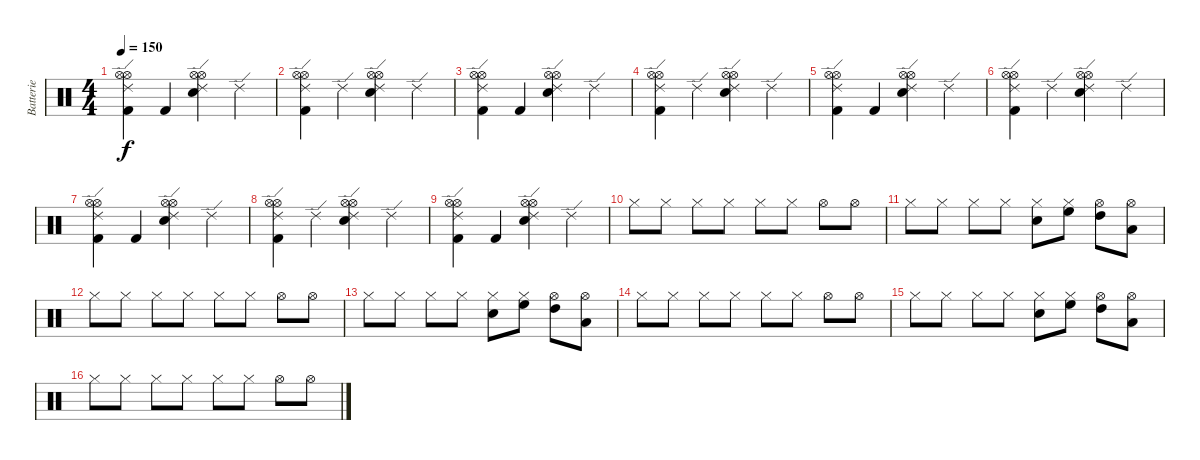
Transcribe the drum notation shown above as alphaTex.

\track ("Batterie" "Batterie") {instrument percussion}
\staff {score}
\articulation defaults
\ts (4 4)
\tempo 150
\clef neutral
\ks c
("Hi-Hat (open)" "Hi-Hat (open)" "Ride (edge) 2" "Kick (hit) 2").4{dy f} "Kick (hit) 2".4 ("Snare (hit) 2" "Hi-Hat (open)" "Hi-Hat (open)" "Ride (edge) 2").4 "Ride (edge) 2".4 |
("Hi-Hat (open)" "Hi-Hat (open)" "Ride (edge) 2" "Kick (hit) 2").4 "Ride (edge) 2".4 ("Snare (hit) 2" "Hi-Hat (open)" "Hi-Hat (open)" "Ride (edge) 2").4 "Ride (edge) 2".4 |
("Hi-Hat (open)" "Hi-Hat (open)" "Ride (edge) 2" "Kick (hit) 2").4 "Kick (hit) 2".4 ("Snare (hit) 2" "Hi-Hat (open)" "Hi-Hat (open)" "Ride (edge) 2").4 "Ride (edge) 2".4 |
("Hi-Hat (open)" "Hi-Hat (open)" "Ride (edge) 2" "Kick (hit) 2").4 "Ride (edge) 2".4 ("Snare (hit) 2" "Hi-Hat (open)" "Hi-Hat (open)" "Ride (edge) 2").4 "Ride (edge) 2".4 |
("Hi-Hat (open)" "Hi-Hat (open)" "Ride (edge) 2" "Kick (hit) 2").4 "Kick (hit) 2".4 ("Snare (hit) 2" "Hi-Hat (open)" "Hi-Hat (open)" "Ride (edge) 2").4 "Ride (edge) 2".4 |
("Hi-Hat (open)" "Hi-Hat (open)" "Ride (edge) 2" "Kick (hit) 2").4 "Ride (edge) 2".4 ("Snare (hit) 2" "Hi-Hat (open)" "Hi-Hat (open)" "Ride (edge) 2").4 "Ride (edge) 2".4 |
("Hi-Hat (open)" "Hi-Hat (open)" "Ride (edge) 2" "Kick (hit) 2").4 "Kick (hit) 2".4 ("Snare (hit) 2" "Hi-Hat (open)" "Hi-Hat (open)" "Ride (edge) 2").4 "Ride (edge) 2".4 |
("Hi-Hat (open)" "Hi-Hat (open)" "Ride (edge) 2" "Kick (hit) 2").4 "Ride (edge) 2".4 ("Snare (hit) 2" "Hi-Hat (open)" "Hi-Hat (open)" "Ride (edge) 2").4 "Ride (edge) 2".4 |
("Hi-Hat (open)" "Hi-Hat (open)" "Ride (edge) 2" "Kick (hit) 2").4 "Kick (hit) 2".4 ("Snare (hit) 2" "Hi-Hat (open)" "Hi-Hat (open)" "Ride (edge) 2").4 "Ride (edge) 2".4 |
\section ("" "")
"Hi-Hat (closed)".8 "Hi-Hat (closed)".8 "Hi-Hat (closed)".8 "Hi-Hat (closed)".8 "Hi-Hat (closed)".8 "Hi-Hat (closed)".8 "Hi-Hat (open)".8 "Hi-Hat (open)".8 |
"Hi-Hat (closed)".8 "Hi-Hat (closed)".8 "Hi-Hat (closed)".8 "Hi-Hat (closed)".8 ("Hi-Hat (closed)" "Snare (hit) 2").8 ("Hi-Hat (closed)" "High Floor Tom (hit)").8 ("Hi-Hat (open)" "High Tom (hit)").8 ("Hi-Hat (open)" "Low Tom (hit)").8 |
"Hi-Hat (closed)".8 "Hi-Hat (closed)".8 "Hi-Hat (closed)".8 "Hi-Hat (closed)".8 "Hi-Hat (closed)".8 "Hi-Hat (closed)".8 "Hi-Hat (open)".8 "Hi-Hat (open)".8 |
"Hi-Hat (closed)".8 "Hi-Hat (closed)".8 "Hi-Hat (closed)".8 "Hi-Hat (closed)".8 ("Hi-Hat (closed)" "Snare (hit) 2").8 ("Hi-Hat (closed)" "High Floor Tom (hit)").8 ("Hi-Hat (open)" "High Tom (hit)").8 ("Hi-Hat (open)" "Low Tom (hit)").8 |
"Hi-Hat (closed)".8 "Hi-Hat (closed)".8 "Hi-Hat (closed)".8 "Hi-Hat (closed)".8 "Hi-Hat (closed)".8 "Hi-Hat (closed)".8 "Hi-Hat (open)".8 "Hi-Hat (open)".8 |
"Hi-Hat (closed)".8 "Hi-Hat (closed)".8 "Hi-Hat (closed)".8 "Hi-Hat (closed)".8 ("Hi-Hat (closed)" "Snare (hit) 2").8 ("Hi-Hat (closed)" "High Floor Tom (hit)").8 ("Hi-Hat (open)" "High Tom (hit)").8 ("Hi-Hat (open)" "Low Tom (hit)").8 |
"Hi-Hat (closed)".8 "Hi-Hat (closed)".8 "Hi-Hat (closed)".8 "Hi-Hat (closed)".8 "Hi-Hat (closed)".8 "Hi-Hat (closed)".8 "Hi-Hat (open)".8 "Hi-Hat (open)".8
